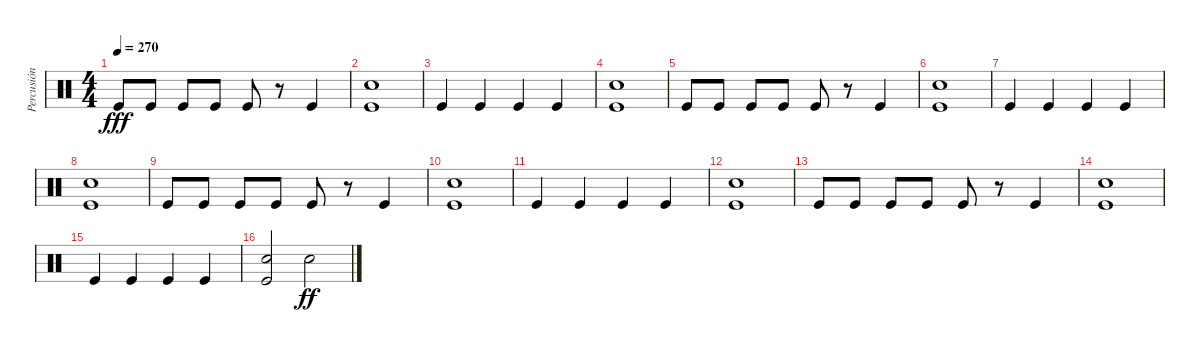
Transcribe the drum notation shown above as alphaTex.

\track ("Percusión" "Percusión") {instrument percussion}
\staff {score}
\articulation defaults
\ts (4 4)
\tempo 270
\clef neutral
\ks c "Kick (hit)".8{dy fff} "Kick (hit)".8 "Kick (hit)".8 "Kick (hit)".8 "Kick (hit)".8
r.8 "Kick (hit)".4 |
("Snare (hit) 2" "Kick (hit)").1 |
"Kick (hit)".4 "Kick (hit)".4 "Kick (hit)".4 "Kick (hit)".4 |
("Snare (hit) 2" "Kick (hit)").1 |
"Kick (hit)".8 "Kick (hit)".8 "Kick (hit)".8 "Kick (hit)".8 "Kick (hit)".8 r.8 "Kick (hit)".4 |
("Snare (hit) 2" "Kick (hit)").1 |
"Kick (hit)".4 "Kick (hit)".4 "Kick (hit)".4 "Kick (hit)".4 |
("Snare (hit) 2" "Kick (hit)").1 |
"Kick (hit)".8 "Kick (hit)".8 "Kick (hit)".8 "Kick (hit)".8 "Kick (hit)".8 r.8 "Kick (hit)".4 |
("Snare (hit) 2" "Kick (hit)").1 |
"Kick (hit)".4 "Kick (hit)".4 "Kick (hit)".4 "Kick (hit)".4 |
("Snare (hit) 2" "Kick (hit)").1 |
"Kick (hit)".8 "Kick (hit)".8 "Kick (hit)".8 "Kick (hit)".8 "Kick (hit)".8 r.8 "Kick (hit)".4 |
("Snare (hit) 2" "Kick (hit)").1 |
"Kick (hit)".4 "Kick (hit)".4 "Kick (hit)".4 "Kick (hit)".4 |
("Snare (hit) 2" "Kick (hit)").2 "Snare (hit) 2".2{dy ff}
